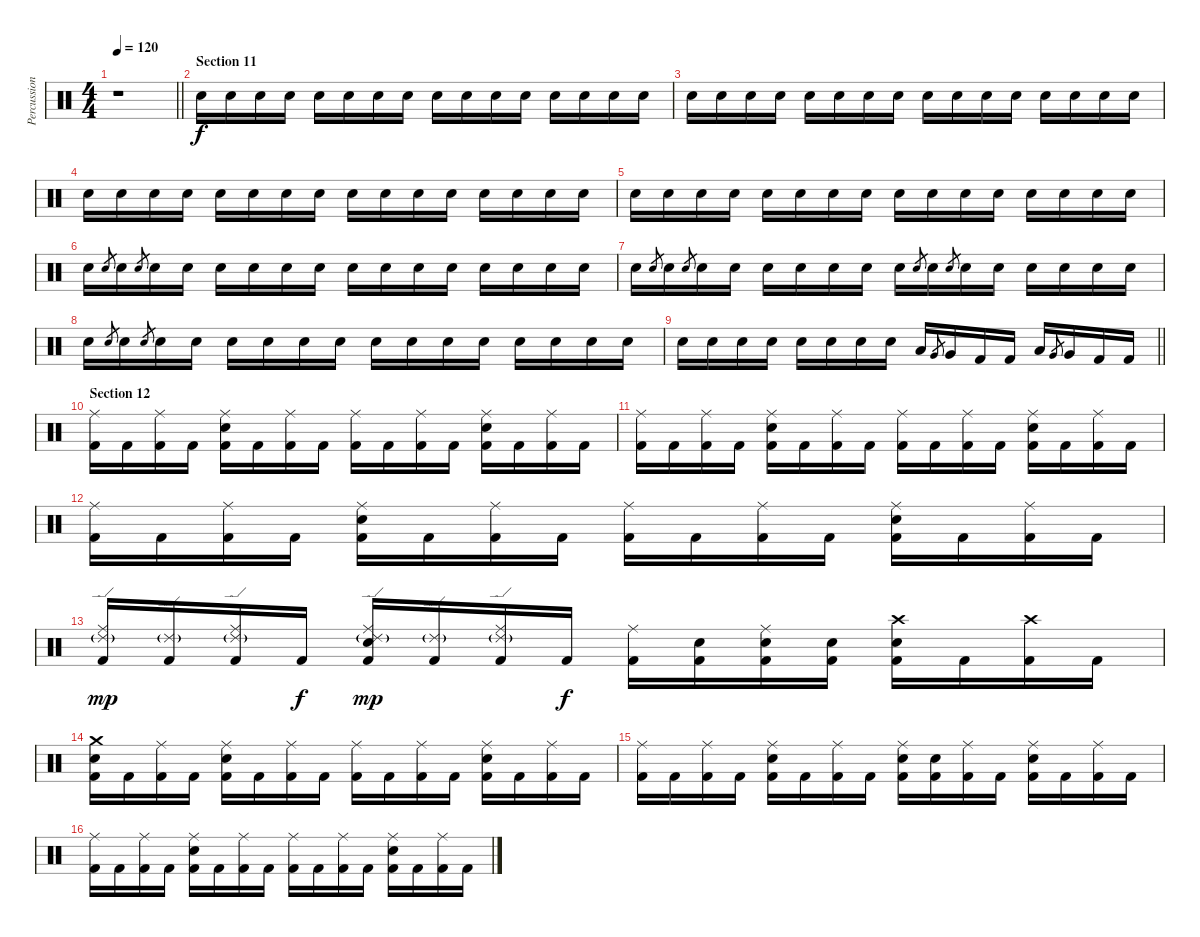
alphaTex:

\track ("Percussion" "Percussion") {instrument percussion}
\staff {score}
\articulation defaults
\ts (4 4)
\tempo 120
\clef neutral
\barLineRight lightlight
\ks c
r.1{dy f} |
\section ("" "Section 11")
"Electric Snare (hit)".16{volume 4} "Electric Snare (hit)".16 "Electric Snare (hit)".16 "Electric Snare (hit)".16 "Electric Snare (hit)".16 "Electric Snare (hit)".16 "Electric Snare (hit)".16 "Electric Snare (hit)".16 "Electric Snare (hit)".16 "Electric Snare (hit)".16 "Electric Snare (hit)".16 "Electric Snare (hit)".16 "Electric Snare (hit)".16 "Electric Snare (hit)".16 "Electric Snare (hit)".16 "Electric Snare (hit)".16 |
"Electric Snare (hit)".16{volume 5} "Electric Snare (hit)".16 "Electric Snare (hit)".16 "Electric Snare (hit)".16 "Electric Snare (hit)".16 "Electric Snare (hit)".16 "Electric Snare (hit)".16 "Electric Snare (hit)".16 "Electric Snare (hit)".16 "Electric Snare (hit)".16 "Electric Snare (hit)".16 "Electric Snare (hit)".16 "Electric Snare (hit)".16 "Electric Snare (hit)".16 "Electric Snare (hit)".16 "Electric Snare (hit)".16 |
"Electric Snare (hit)".16 "Electric Snare (hit)".16 "Electric Snare (hit)".16 "Electric Snare (hit)".16 "Electric Snare (hit)".16 "Electric Snare (hit)".16 "Electric Snare (hit)".16 "Electric Snare (hit)".16 "Electric Snare (hit)".16 "Electric Snare (hit)".16 "Electric Snare (hit)".16 "Electric Snare (hit)".16 "Electric Snare (hit)".16 "Electric Snare (hit)".16 "Electric Snare (hit)".16 "Electric Snare (hit)".16 |
"Electric Snare (hit)".16{volume 6} "Electric Snare (hit)".16 "Electric Snare (hit)".16 "Electric Snare (hit)".16 "Electric Snare (hit)".16 "Electric Snare (hit)".16 "Electric Snare (hit)".16 "Electric Snare (hit)".16 "Electric Snare (hit)".16 "Electric Snare (hit)".16 "Electric Snare (hit)".16 "Electric Snare (hit)".16 "Electric Snare (hit)".16 "Electric Snare (hit)".16 "Electric Snare (hit)".16 "Electric Snare (hit)".16 |
"Electric Snare (hit)".16{volume 7} "Electric Snare (hit)".8{gr} "Electric Snare (hit)".16 "Electric Snare (hit)".8{gr} "Electric Snare (hit)".16 "Electric Snare (hit)".16 "Electric Snare (hit)".16 "Electric Snare (hit)".16 "Electric Snare (hit)".16 "Electric Snare (hit)".16 "Electric Snare (hit)".16 "Electric Snare (hit)".16 "Electric Snare (hit)".16 "Electric Snare (hit)".16 "Electric Snare (hit)".16 "Electric Snare (hit)".16 "Electric Snare (hit)".16 "Electric Snare (hit)".16 |
"Electric Snare (hit)".16{volume 8} "Electric Snare (hit)".8{gr} "Electric Snare (hit)".16 "Electric Snare (hit)".8{gr} "Electric Snare (hit)".16 "Electric Snare (hit)".16 "Electric Snare (hit)".16 "Electric Snare (hit)".16 "Electric Snare (hit)".16 "Electric Snare (hit)".16 "Electric Snare (hit)".16 "Electric Snare (hit)".8{gr} "Electric Snare (hit)".16 "Electric Snare (hit)".8{gr} "Electric Snare (hit)".16 "Electric Snare (hit)".16 "Electric Snare (hit)".16 "Electric Snare (hit)".16 "Electric Snare (hit)".16 "Electric Snare (hit)".16 |
"Electric Snare (hit)".16{volume 9} "Electric Snare (hit)".8{gr} "Electric Snare (hit)".16 "Electric Snare (hit)".8{gr} "Electric Snare (hit)".16 "Electric Snare (hit)".16 "Electric Snare (hit)".16 "Electric Snare (hit)".16 "Electric Snare (hit)".16 "Electric Snare (hit)".16 "Electric Snare (hit)".16{volume 9} "Electric Snare (hit)".16 "Electric Snare (hit)".16 "Electric Snare (hit)".16 "Electric Snare (hit)".16 "Electric Snare (hit)".16 "Electric Snare (hit)".16 "Electric Snare (hit)".16 |
\barLineRight lightlight "Electric Snare (hit)".16{volume 11} "Electric Snare (hit)".16 "Electric Snare (hit)".16 "Electric Snare (hit)".16 "Electric Snare (hit)".16{volume 12} "Electric Snare (hit)".16 "Electric Snare (hit)".16 "Electric Snare (hit)".16 "Low Tom (hit)".16{volume 13} "Very Low Tom (hit)".8{gr} "Very Low Tom (hit)".16 "Kick (hit) 2".16 "Kick (hit) 2".16 "Low Tom (hit)".16 "Very Low Tom (hit)".8{gr} "Very Low Tom (hit)".16 "Kick (hit) 2".16 "Kick (hit) 2".16
|
\section ("" "Section 12")
("Ride (middle)" "Kick (hit) 2").16 "Kick (hit) 2".16 ("Ride (middle)" "Kick (hit) 2").16 "Kick (hit) 2".16 ("Ride (middle)" "Electric Snare (hit)" "Kick (hit) 2").16 "Kick (hit) 2".16 ("Ride (middle)" "Kick (hit) 2").16 "Kick (hit) 2".16 ("Ride (middle)" "Kick (hit) 2").16 "Kick (hit) 2".16 ("Ride (middle)" "Kick (hit) 2").16 "Kick (hit) 2".16 ("Ride (middle)" "Electric Snare (hit)" "Kick (hit) 2").16 "Kick (hit) 2".16 ("Ride (middle)" "Kick (hit) 2").16 "Kick (hit) 2".16 |
("Ride (middle)" "Kick (hit) 2").16 "Kick (hit) 2".16 ("Ride (middle)" "Kick (hit) 2").16 "Kick (hit) 2".16 ("Ride (middle)" "Electric Snare (hit)" "Kick (hit) 2").16 "Kick (hit) 2".16 ("Ride (middle)" "Kick (hit) 2").16 "Kick (hit) 2".16 ("Ride (middle)" "Kick (hit) 2").16 "Kick (hit) 2".16 ("Ride (middle)" "Kick (hit) 2").16 "Kick (hit) 2".16 ("Ride (middle)" "Electric Snare (hit)" "Kick (hit) 2").16 "Kick (hit) 2".16 ("Ride (middle)" "Kick (hit) 2").16 "Kick (hit) 2".16 |
("Ride (middle)" "Kick (hit) 2").16 "Kick (hit) 2".16 ("Ride (middle)" "Kick (hit) 2").16 "Kick (hit) 2".16 ("Ride (middle)" "Electric Snare (hit)" "Kick (hit) 2").16 "Kick (hit) 2".16 ("Ride (middle)" "Kick (hit) 2").16 "Kick (hit) 2".16 ("Ride (middle)" "Kick (hit) 2").16 "Kick (hit) 2".16 ("Ride (middle)" "Kick (hit) 2").16 "Kick (hit) 2".16 ("Ride (middle)" "Electric Snare (hit)" "Kick (hit) 2").16 "Kick (hit) 2".16 ("Ride (middle)" "Kick (hit) 2").16 "Kick (hit) 2".16 |
("Ride (middle)" "Ride (edge) 2"{g} "Kick (hit) 2").16{dy mp} ("Ride (edge) 2"{g} "Kick (hit) 2").16 ("Ride (middle)" "Ride (edge) 2"{g} "Kick (hit) 2").16 "Kick (hit) 2".16{dy f} ("Ride (middle)" "Ride (edge) 2"{g} "Electric Snare (hit)" "Kick (hit) 2").16{dy mp} ("Ride (edge) 2"{g} "Kick (hit) 2").16 ("Ride (middle)" "Ride (edge) 2"{g} "Kick (hit) 2").16 "Kick (hit) 2".16{dy f} ("Ride (middle)" "Kick (hit) 2").16 ("Electric Snare (hit)" "Kick (hit) 2").16 ("Ride (middle)" "Electric Snare (hit)" "Kick (hit) 2").16 ("Electric Snare (hit)" "Kick (hit) 2").16 ("Crash high (hit)" "Electric Snare (hit)" "Kick (hit) 2").16 "Kick (hit) 2".16 ("Crash high (hit)" "Kick (hit) 2").16 "Kick (hit) 2".16 |
("Crash medium (hit)" "Electric Snare (hit)" "Kick (hit) 2").16 "Kick (hit) 2".16 ("Ride (middle)" "Kick (hit) 2").16 "Kick (hit) 2".16 ("Ride (middle)" "Electric Snare (hit)" "Kick (hit) 2").16 "Kick (hit) 2".16 ("Ride (middle)" "Kick (hit) 2").16 "Kick (hit) 2".16 ("Ride (middle)" "Kick (hit) 2").16 "Kick (hit) 2".16 ("Ride (middle)" "Kick (hit) 2").16 "Kick (hit) 2".16 ("Ride (middle)" "Electric Snare (hit)" "Kick (hit) 2").16 "Kick (hit) 2".16 ("Ride (middle)" "Kick (hit) 2").16 "Kick (hit) 2".16 |
("Ride (middle)" "Kick (hit) 2").16 "Kick (hit) 2".16 ("Ride (middle)" "Kick (hit) 2").16 "Kick (hit) 2".16 ("Ride (middle)" "Electric Snare (hit)" "Kick (hit) 2").16 "Kick (hit) 2".16 ("Ride (middle)" "Kick (hit) 2").16 "Kick (hit) 2".16 ("Ride (middle)" "Electric Snare (hit)" "Kick (hit) 2").16 ("Electric Snare (hit)" "Kick (hit) 2").16 ("Ride (middle)" "Kick (hit) 2").16 "Kick (hit) 2".16 ("Ride (middle)" "Electric Snare (hit)" "Kick (hit) 2").16 "Kick (hit) 2".16 ("Ride (middle)" "Kick (hit) 2").16 "Kick (hit) 2".16 |
("Ride (middle)" "Kick (hit) 2").16 "Kick (hit) 2".16 ("Ride (middle)" "Kick (hit) 2").16 "Kick (hit) 2".16 ("Ride (middle)" "Electric Snare (hit)" "Kick (hit) 2").16 "Kick (hit) 2".16 ("Ride (middle)" "Kick (hit) 2").16 "Kick (hit) 2".16 ("Ride (middle)" "Kick (hit) 2").16 "Kick (hit) 2".16 ("Ride (middle)" "Kick (hit) 2").16 "Kick (hit) 2".16 ("Ride (middle)" "Electric Snare (hit)" "Kick (hit) 2").16 "Kick (hit) 2".16 ("Ride (middle)" "Kick (hit) 2").16 "Kick (hit) 2".16
